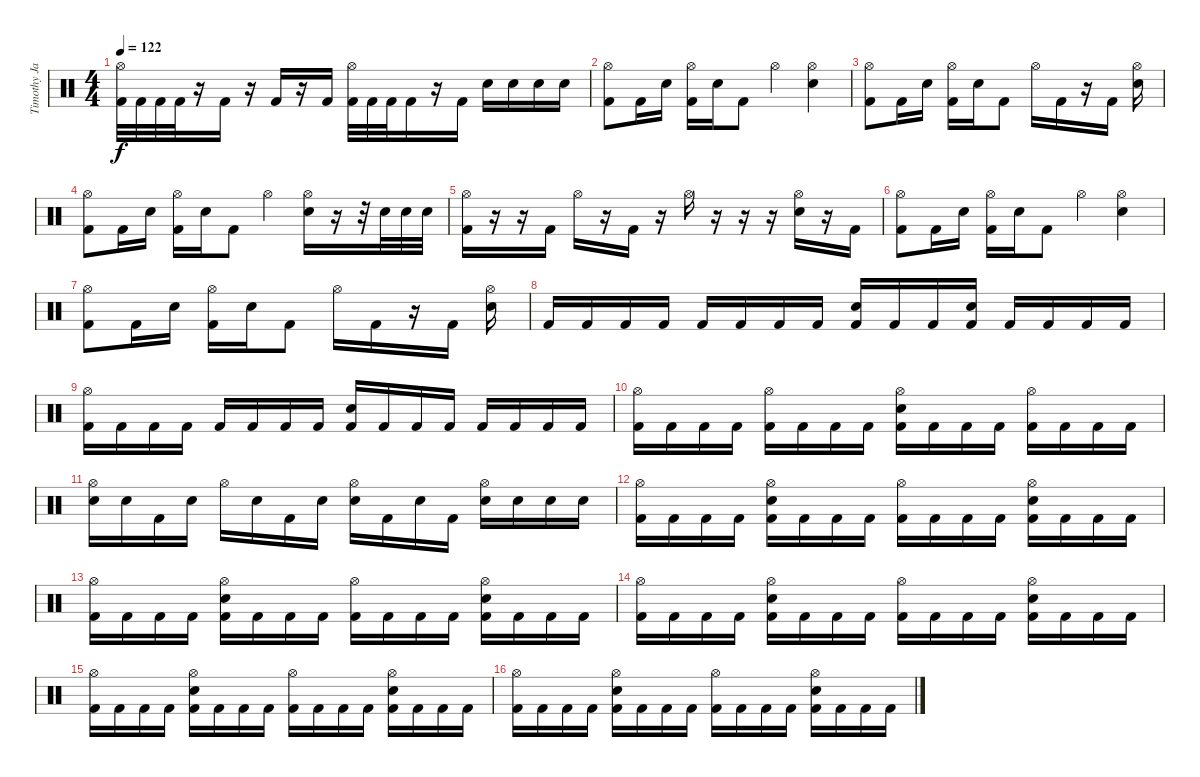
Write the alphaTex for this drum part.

\track ("Timothy Java" "Timothy Ja") {instrument percussion}
\staff {score}
\articulation defaults
\ts (4 4)
\tempo 122
\clef neutral
\ks c
("Hi-Hat (open)" "Kick (hit) 2").32{dy f} "Kick (hit) 2".32 "Kick (hit) 2".32 "Kick (hit) 2".32 r.16 "Kick (hit) 2".16 r.16 "Kick (hit) 2".16 r.16 "Kick (hit) 2".16 ("Hi-Hat (open)" "Kick (hit) 2").32 "Kick (hit) 2".32 "Kick (hit) 2".32 "Kick (hit) 2".16 r.16 "Kick (hit) 2".16 "Electric Snare (hit)".16 "Electric Snare (hit)".16 "Electric Snare (hit)".16 "Electric Snare (hit)".16 |
("Hi-Hat (open)" "Kick (hit) 2").8 "Kick (hit) 2".16 "Electric Snare (hit)".16 ("Hi-Hat (open)" "Kick (hit) 2").16 "Electric Snare (hit)".16 "Kick (hit) 2".8 "Hi-Hat (open)".4 ("Hi-Hat (open)" "Electric Snare (hit)").4 |
("Hi-Hat (open)" "Kick (hit) 2").8 "Kick (hit) 2".16 "Electric Snare (hit)".16 ("Hi-Hat (open)" "Kick (hit) 2").16 "Electric Snare (hit)".16 "Kick (hit) 2".8 "Hi-Hat (open)".16 "Kick (hit) 2".16 r.16 "Kick (hit) 2".16 ("Hi-Hat (open)" "Electric Snare (hit)").16 |
("Hi-Hat (open)" "Kick (hit) 2").8 "Kick (hit) 2".16 "Electric Snare (hit)".16 ("Hi-Hat (open)" "Kick (hit) 2").16 "Electric Snare (hit)".16 "Kick (hit) 2".8 "Hi-Hat (open)".4 ("Hi-Hat (open)" "Electric Snare (hit)").16 r.16 r.32 "Electric Snare (hit)".32 "Electric Snare (hit)".32 "Electric Snare (hit)".32 |
("Hi-Hat (open)" "Kick (hit) 2").16 r.16 r.16 "Kick (hit) 2".16 "Hi-Hat (open)".16 r.16 "Kick (hit) 2".16 r.16 "Hi-Hat (open)".16 r.16 r.16 r.16 ("Hi-Hat (open)" "Electric Snare (hit)").16 r.16 "Kick (hit) 2".16 |
("Hi-Hat (open)" "Kick (hit) 2").8 "Kick (hit) 2".16 "Electric Snare (hit)".16 ("Hi-Hat (open)" "Kick (hit) 2").16 "Electric Snare (hit)".16 "Kick (hit) 2".8 "Hi-Hat (open)".4 ("Hi-Hat (open)" "Electric Snare (hit)").4 |
("Hi-Hat (open)" "Kick (hit) 2").8 "Kick (hit) 2".16 "Electric Snare (hit)".16 ("Hi-Hat (open)" "Kick (hit) 2").16 "Electric Snare (hit)".16 "Kick (hit) 2".8 "Hi-Hat (open)".16 "Kick (hit) 2".16 r.16 "Kick (hit) 2".16 ("Hi-Hat (open)" "Electric Snare (hit)").16 |
"Kick (hit) 2".16 "Kick (hit) 2".16 "Kick (hit) 2".16 "Kick (hit) 2".16 "Kick (hit) 2".16 "Kick (hit) 2".16 "Kick (hit) 2".16 "Kick (hit) 2".16 ("Electric Snare (hit)" "Kick (hit) 2").16 "Kick (hit) 2".16 "Kick (hit) 2".16 ("Electric Snare (hit)" "Kick (hit) 2").16 "Kick (hit) 2".16 "Kick (hit) 2".16 "Kick (hit) 2".16 "Kick (hit) 2".16 |
("Hi-Hat (open)" "Kick (hit) 2").16 "Kick (hit) 2".16 "Kick (hit) 2".16 "Kick (hit) 2".16 "Kick (hit) 2".16 "Kick (hit) 2".16 "Kick (hit) 2".16 "Kick (hit) 2".16 ("Electric Snare (hit)" "Kick (hit) 2").16 "Kick (hit) 2".16 "Kick (hit) 2".16 "Kick (hit) 2".16 "Kick (hit) 2".16 "Kick (hit) 2".16 "Kick (hit) 2".16 "Kick (hit) 2".16 |
("Hi-Hat (open)" "Kick (hit) 2").16 "Kick (hit) 2".16 "Kick (hit) 2".16 "Kick (hit) 2".16 ("Hi-Hat (open)" "Kick (hit) 2").16 "Kick (hit) 2".16 "Kick (hit) 2".16 "Kick (hit) 2".16 ("Hi-Hat (open)" "Electric Snare (hit)" "Kick (hit) 2").16 "Kick (hit) 2".16 "Kick (hit) 2".16 "Kick (hit) 2".16 ("Hi-Hat (open)" "Kick (hit) 2").16 "Kick (hit) 2".16 "Kick (hit) 2".16 "Kick (hit) 2".16 |
("Hi-Hat (open)" "Electric Snare (hit)").16 "Electric Snare (hit)".16 "Kick (hit) 2".16 "Electric Snare (hit)".16 "Hi-Hat (open)".16 "Electric Snare (hit)".16 "Kick (hit) 2".16 "Electric Snare (hit)".16 ("Hi-Hat (open)" "Electric Snare (hit)").16 "Kick (hit) 2".16 "Electric Snare (hit)".16 "Kick (hit) 2".16 ("Hi-Hat (open)" "Electric Snare (hit)").16 "Electric Snare (hit)".16 "Electric Snare (hit)".16 "Electric Snare (hit)".16 |
("Kick (hit) 2" "Hi-Hat (open)").16 "Kick (hit) 2".16 "Kick (hit) 2".16 "Kick (hit) 2".16 ("Kick (hit) 2" "Electric Snare (hit)" "Hi-Hat (open)").16 "Kick (hit) 2".16 "Kick (hit) 2".16 "Kick (hit) 2".16 ("Kick (hit) 2" "Hi-Hat (open)").16 "Kick (hit) 2".16 "Kick (hit) 2".16 "Kick (hit) 2".16 ("Kick (hit) 2" "Electric Snare (hit)" "Hi-Hat (open)").16 "Kick (hit) 2".16 "Kick (hit) 2".16 "Kick (hit) 2".16 |
("Kick (hit) 2" "Hi-Hat (open)").16 "Kick (hit) 2".16 "Kick (hit) 2".16 "Kick (hit) 2".16 ("Kick (hit) 2" "Electric Snare (hit)" "Hi-Hat (open)").16 "Kick (hit) 2".16 "Kick (hit) 2".16 "Kick (hit) 2".16 ("Kick (hit) 2" "Hi-Hat (open)").16 "Kick (hit) 2".16 "Kick (hit) 2".16 "Kick (hit) 2".16 ("Kick (hit) 2" "Electric Snare (hit)" "Hi-Hat (open)").16 "Kick (hit) 2".16 "Kick (hit) 2".16 "Kick (hit) 2".16 |
("Kick (hit) 2" "Hi-Hat (open)").16 "Kick (hit) 2".16 "Kick (hit) 2".16 "Kick (hit) 2".16 ("Kick (hit) 2" "Electric Snare (hit)" "Hi-Hat (open)").16 "Kick (hit) 2".16 "Kick (hit) 2".16 "Kick (hit) 2".16 ("Kick (hit) 2" "Hi-Hat (open)").16 "Kick (hit) 2".16 "Kick (hit) 2".16 "Kick (hit) 2".16 ("Kick (hit) 2" "Electric Snare (hit)" "Hi-Hat (open)").16 "Kick (hit) 2".16 "Kick (hit) 2".16 "Kick (hit) 2".16 |
("Kick (hit) 2" "Hi-Hat (open)").16 "Kick (hit) 2".16 "Kick (hit) 2".16 "Kick (hit) 2".16 ("Kick (hit) 2" "Electric Snare (hit)" "Hi-Hat (open)").16 "Kick (hit) 2".16 "Kick (hit) 2".16 "Kick (hit) 2".16 ("Kick (hit) 2" "Hi-Hat (open)").16 "Kick (hit) 2".16 "Kick (hit) 2".16 "Kick (hit) 2".16 ("Kick (hit) 2" "Electric Snare (hit)" "Hi-Hat (open)").16 "Kick (hit) 2".16 "Kick (hit) 2".16 "Kick (hit) 2".16 |
("Kick (hit) 2" "Hi-Hat (open)").16 "Kick (hit) 2".16 "Kick (hit) 2".16 "Kick (hit) 2".16 ("Kick (hit) 2" "Electric Snare (hit)" "Hi-Hat (open)").16 "Kick (hit) 2".16 "Kick (hit) 2".16 "Kick (hit) 2".16 ("Kick (hit) 2" "Hi-Hat (open)").16 "Kick (hit) 2".16 "Kick (hit) 2".16 "Kick (hit) 2".16 ("Kick (hit) 2" "Electric Snare (hit)" "Hi-Hat (open)").16 "Kick (hit) 2".16 "Kick (hit) 2".16 "Kick (hit) 2".16
